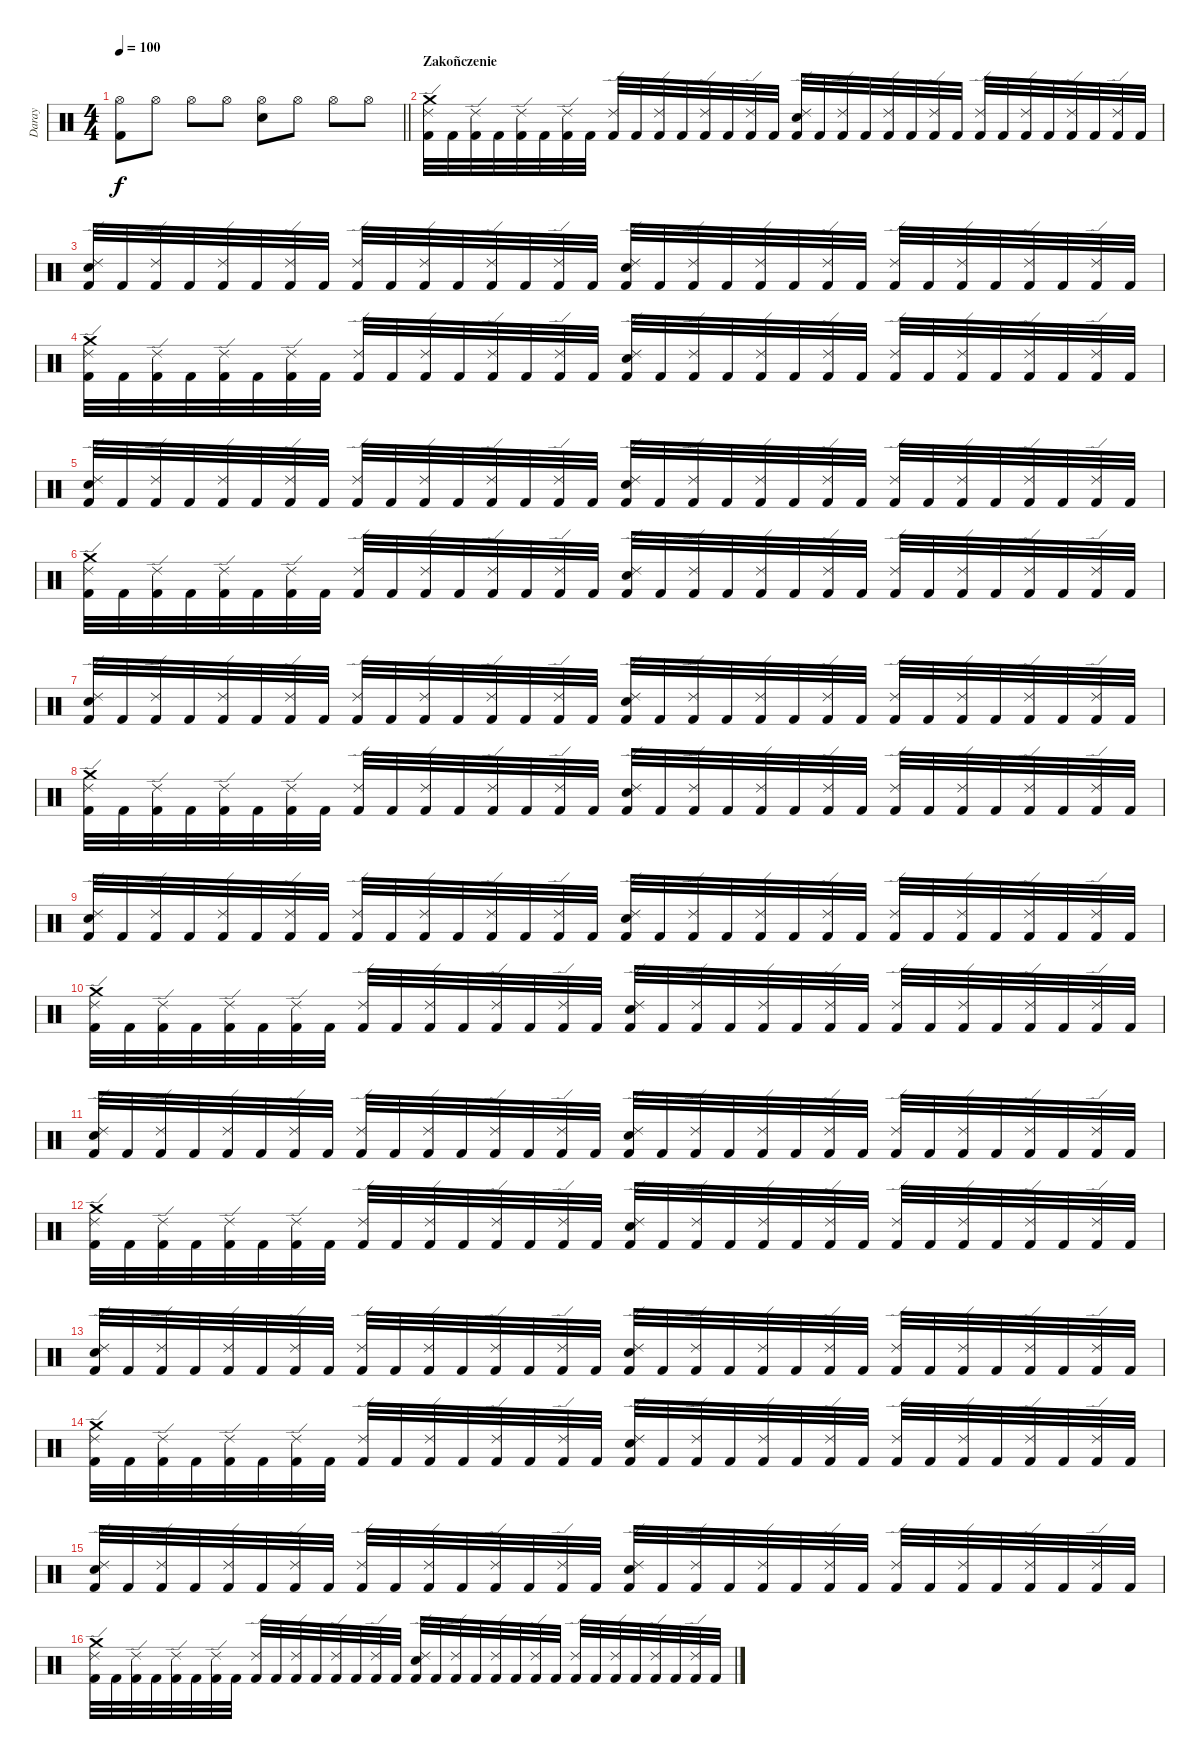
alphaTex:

\track ("Daray" "Daray") {instrument percussion}
\staff {score}
\articulation defaults
\ts (4 4)
\tempo 100
\clef neutral
\barLineRight lightlight
\ks c
("Hi-Hat (open)" "Kick (hit) 2").8{dy f} "Hi-Hat (open)".8 "Hi-Hat (open)".8 "Hi-Hat (open)".8 ("Hi-Hat (open)" "Electric Snare (hit)").8 "Hi-Hat (open)".8 "Hi-Hat (open)".8 "Hi-Hat (open)".8 |
\section ("" "Zakoñczenie")
("Ride (edge) 2" "Crash medium (hit)" "Kick (hit) 2").32 "Kick (hit) 2".32 ("Ride (edge) 2" "Kick (hit) 2").32 "Kick (hit) 2".32 ("Ride (edge) 2" "Kick (hit) 2").32 "Kick (hit) 2".32 ("Ride (edge) 2" "Kick (hit) 2").32 "Kick (hit) 2".32 ("Ride (edge) 2" "Kick (hit) 2").32 "Kick (hit) 2".32 ("Ride (edge) 2" "Kick (hit) 2").32 "Kick (hit) 2".32 ("Ride (edge) 2" "Kick (hit) 2").32 "Kick (hit) 2".32 ("Ride (edge) 2" "Kick (hit) 2").32 "Kick (hit) 2".32 ("Snare (hit) 2" "Ride (edge) 2" "Kick (hit) 2").32 "Kick (hit) 2".32 ("Ride (edge) 2" "Kick (hit) 2").32 "Kick (hit) 2".32 ("Ride (edge) 2" "Kick (hit) 2").32 "Kick (hit) 2".32 ("Ride (edge) 2" "Kick (hit) 2").32 "Kick (hit) 2".32 ("Ride (edge) 2" "Kick (hit) 2").32 "Kick (hit) 2".32 ("Ride (edge) 2" "Kick (hit) 2").32 "Kick (hit) 2".32 ("Ride (edge) 2" "Kick (hit) 2").32 "Kick (hit) 2".32 ("Ride (edge) 2" "Kick (hit) 2").32 "Kick (hit) 2".32 |
("Snare (hit) 2" "Ride (edge) 2" "Kick (hit) 2").32 "Kick (hit) 2".32 ("Ride (edge) 2" "Kick (hit) 2").32 "Kick (hit) 2".32 ("Ride (edge) 2" "Kick (hit) 2").32 "Kick (hit) 2".32 ("Ride (edge) 2" "Kick (hit) 2").32 "Kick (hit) 2".32 ("Ride (edge) 2" "Kick (hit) 2").32 "Kick (hit) 2".32 ("Ride (edge) 2" "Kick (hit) 2").32 "Kick (hit) 2".32 ("Ride (edge) 2" "Kick (hit) 2").32 "Kick (hit) 2".32 ("Ride (edge) 2" "Kick (hit) 2").32 "Kick (hit) 2".32 ("Snare (hit) 2" "Ride (edge) 2" "Kick (hit) 2").32 "Kick (hit) 2".32 ("Ride (edge) 2" "Kick (hit) 2").32 "Kick (hit) 2".32 ("Ride (edge) 2" "Kick (hit) 2").32 "Kick (hit) 2".32 ("Ride (edge) 2" "Kick (hit) 2").32 "Kick (hit) 2".32 ("Ride (edge) 2" "Kick (hit) 2").32 "Kick (hit) 2".32 ("Ride (edge) 2" "Kick (hit) 2").32 "Kick (hit) 2".32 ("Ride (edge) 2" "Kick (hit) 2").32 "Kick (hit) 2".32 ("Ride (edge) 2" "Kick (hit) 2").32 "Kick (hit) 2".32 |
("Ride (edge) 2" "Crash medium (hit)" "Kick (hit) 2").32 "Kick (hit) 2".32 ("Ride (edge) 2" "Kick (hit) 2").32 "Kick (hit) 2".32 ("Ride (edge) 2" "Kick (hit) 2").32 "Kick (hit) 2".32 ("Ride (edge) 2" "Kick (hit) 2").32 "Kick (hit) 2".32 ("Ride (edge) 2" "Kick (hit) 2").32 "Kick (hit) 2".32 ("Ride (edge) 2" "Kick (hit) 2").32 "Kick (hit) 2".32 ("Ride (edge) 2" "Kick (hit) 2").32 "Kick (hit) 2".32 ("Ride (edge) 2" "Kick (hit) 2").32 "Kick (hit) 2".32 ("Snare (hit) 2" "Ride (edge) 2" "Kick (hit) 2").32 "Kick (hit) 2".32 ("Ride (edge) 2" "Kick (hit) 2").32 "Kick (hit) 2".32 ("Ride (edge) 2" "Kick (hit) 2").32 "Kick (hit) 2".32 ("Ride (edge) 2" "Kick (hit) 2").32 "Kick (hit) 2".32 ("Ride (edge) 2" "Kick (hit) 2").32 "Kick (hit) 2".32 ("Ride (edge) 2" "Kick (hit) 2").32 "Kick (hit) 2".32 ("Ride (edge) 2" "Kick (hit) 2").32 "Kick (hit) 2".32 ("Ride (edge) 2" "Kick (hit) 2").32 "Kick (hit) 2".32 |
("Snare (hit) 2" "Ride (edge) 2" "Kick (hit) 2").32 "Kick (hit) 2".32 ("Ride (edge) 2" "Kick (hit) 2").32 "Kick (hit) 2".32 ("Ride (edge) 2" "Kick (hit) 2").32 "Kick (hit) 2".32 ("Ride (edge) 2" "Kick (hit) 2").32 "Kick (hit) 2".32 ("Ride (edge) 2" "Kick (hit) 2").32 "Kick (hit) 2".32 ("Ride (edge) 2" "Kick (hit) 2").32 "Kick (hit) 2".32 ("Ride (edge) 2" "Kick (hit) 2").32 "Kick (hit) 2".32 ("Ride (edge) 2" "Kick (hit) 2").32 "Kick (hit) 2".32 ("Snare (hit) 2" "Ride (edge) 2" "Kick (hit) 2").32 "Kick (hit) 2".32 ("Ride (edge) 2" "Kick (hit) 2").32 "Kick (hit) 2".32 ("Ride (edge) 2" "Kick (hit) 2").32 "Kick (hit) 2".32 ("Ride (edge) 2" "Kick (hit) 2").32 "Kick (hit) 2".32 ("Ride (edge) 2" "Kick (hit) 2").32 "Kick (hit) 2".32 ("Ride (edge) 2" "Kick (hit) 2").32 "Kick (hit) 2".32 ("Ride (edge) 2" "Kick (hit) 2").32 "Kick (hit) 2".32 ("Ride (edge) 2" "Kick (hit) 2").32 "Kick (hit) 2".32 |
("Ride (edge) 2" "Crash medium (hit)" "Kick (hit) 2").32 "Kick (hit) 2".32 ("Ride (edge) 2" "Kick (hit) 2").32 "Kick (hit) 2".32 ("Ride (edge) 2" "Kick (hit) 2").32 "Kick (hit) 2".32 ("Ride (edge) 2" "Kick (hit) 2").32 "Kick (hit) 2".32 ("Ride (edge) 2" "Kick (hit) 2").32 "Kick (hit) 2".32 ("Ride (edge) 2" "Kick (hit) 2").32 "Kick (hit) 2".32 ("Ride (edge) 2" "Kick (hit) 2").32 "Kick (hit) 2".32 ("Ride (edge) 2" "Kick (hit) 2").32 "Kick (hit) 2".32 ("Snare (hit) 2" "Ride (edge) 2" "Kick (hit) 2").32 "Kick (hit) 2".32 ("Ride (edge) 2" "Kick (hit) 2").32 "Kick (hit) 2".32 ("Ride (edge) 2" "Kick (hit) 2").32 "Kick (hit) 2".32 ("Ride (edge) 2" "Kick (hit) 2").32 "Kick (hit) 2".32 ("Ride (edge) 2" "Kick (hit) 2").32 "Kick (hit) 2".32 ("Ride (edge) 2" "Kick (hit) 2").32 "Kick (hit) 2".32 ("Ride (edge) 2" "Kick (hit) 2").32 "Kick (hit) 2".32 ("Ride (edge) 2" "Kick (hit) 2").32 "Kick (hit) 2".32 |
("Snare (hit) 2" "Ride (edge) 2" "Kick (hit) 2").32 "Kick (hit) 2".32 ("Ride (edge) 2" "Kick (hit) 2").32 "Kick (hit) 2".32 ("Ride (edge) 2" "Kick (hit) 2").32 "Kick (hit) 2".32 ("Ride (edge) 2" "Kick (hit) 2").32 "Kick (hit) 2".32 ("Ride (edge) 2" "Kick (hit) 2").32 "Kick (hit) 2".32 ("Ride (edge) 2" "Kick (hit) 2").32 "Kick (hit) 2".32 ("Ride (edge) 2" "Kick (hit) 2").32 "Kick (hit) 2".32 ("Ride (edge) 2" "Kick (hit) 2").32 "Kick (hit) 2".32 ("Snare (hit) 2" "Ride (edge) 2" "Kick (hit) 2").32 "Kick (hit) 2".32 ("Ride (edge) 2" "Kick (hit) 2").32 "Kick (hit) 2".32 ("Ride (edge) 2" "Kick (hit) 2").32 "Kick (hit) 2".32 ("Ride (edge) 2" "Kick (hit) 2").32 "Kick (hit) 2".32 ("Ride (edge) 2" "Kick (hit) 2").32 "Kick (hit) 2".32 ("Ride (edge) 2" "Kick (hit) 2").32 "Kick (hit) 2".32 ("Ride (edge) 2" "Kick (hit) 2").32 "Kick (hit) 2".32 ("Ride (edge) 2" "Kick (hit) 2").32 "Kick (hit) 2".32 |
("Ride (edge) 2" "Crash medium (hit)" "Kick (hit) 2").32 "Kick (hit) 2".32 ("Ride (edge) 2" "Kick (hit) 2").32 "Kick (hit) 2".32 ("Ride (edge) 2" "Kick (hit) 2").32 "Kick (hit) 2".32 ("Ride (edge) 2" "Kick (hit) 2").32 "Kick (hit) 2".32 ("Ride (edge) 2" "Kick (hit) 2").32 "Kick (hit) 2".32 ("Ride (edge) 2" "Kick (hit) 2").32 "Kick (hit) 2".32 ("Ride (edge) 2" "Kick (hit) 2").32 "Kick (hit) 2".32 ("Ride (edge) 2" "Kick (hit) 2").32 "Kick (hit) 2".32 ("Snare (hit) 2" "Ride (edge) 2" "Kick (hit) 2").32 "Kick (hit) 2".32 ("Ride (edge) 2" "Kick (hit) 2").32 "Kick (hit) 2".32 ("Ride (edge) 2" "Kick (hit) 2").32 "Kick (hit) 2".32 ("Ride (edge) 2" "Kick (hit) 2").32 "Kick (hit) 2".32 ("Ride (edge) 2" "Kick (hit) 2").32 "Kick (hit) 2".32 ("Ride (edge) 2" "Kick (hit) 2").32 "Kick (hit) 2".32 ("Ride (edge) 2" "Kick (hit) 2").32 "Kick (hit) 2".32 ("Ride (edge) 2" "Kick (hit) 2").32 "Kick (hit) 2".32 |
("Snare (hit) 2" "Ride (edge) 2" "Kick (hit) 2").32 "Kick (hit) 2".32 ("Ride (edge) 2" "Kick (hit) 2").32 "Kick (hit) 2".32 ("Ride (edge) 2" "Kick (hit) 2").32 "Kick (hit) 2".32 ("Ride (edge) 2" "Kick (hit) 2").32 "Kick (hit) 2".32 ("Ride (edge) 2" "Kick (hit) 2").32 "Kick (hit) 2".32 ("Ride (edge) 2" "Kick (hit) 2").32 "Kick (hit) 2".32 ("Ride (edge) 2" "Kick (hit) 2").32 "Kick (hit) 2".32 ("Ride (edge) 2" "Kick (hit) 2").32 "Kick (hit) 2".32 ("Snare (hit) 2" "Ride (edge) 2" "Kick (hit) 2").32 "Kick (hit) 2".32 ("Ride (edge) 2" "Kick (hit) 2").32 "Kick (hit) 2".32 ("Ride (edge) 2" "Kick (hit) 2").32 "Kick (hit) 2".32 ("Ride (edge) 2" "Kick (hit) 2").32 "Kick (hit) 2".32 ("Ride (edge) 2" "Kick (hit) 2").32 "Kick (hit) 2".32 ("Ride (edge) 2" "Kick (hit) 2").32 "Kick (hit) 2".32 ("Ride (edge) 2" "Kick (hit) 2").32 "Kick (hit) 2".32 ("Ride (edge) 2" "Kick (hit) 2").32 "Kick (hit) 2".32 |
("Ride (edge) 2" "Crash medium (hit)" "Kick (hit) 2").32 "Kick (hit) 2".32 ("Ride (edge) 2" "Kick (hit) 2").32 "Kick (hit) 2".32 ("Ride (edge) 2" "Kick (hit) 2").32 "Kick (hit) 2".32 ("Ride (edge) 2" "Kick (hit) 2").32 "Kick (hit) 2".32 ("Ride (edge) 2" "Kick (hit) 2").32 "Kick (hit) 2".32 ("Ride (edge) 2" "Kick (hit) 2").32 "Kick (hit) 2".32 ("Ride (edge) 2" "Kick (hit) 2").32 "Kick (hit) 2".32 ("Ride (edge) 2" "Kick (hit) 2").32 "Kick (hit) 2".32 ("Snare (hit) 2" "Ride (edge) 2" "Kick (hit) 2").32 "Kick (hit) 2".32 ("Ride (edge) 2" "Kick (hit) 2").32 "Kick (hit) 2".32 ("Ride (edge) 2" "Kick (hit) 2").32 "Kick (hit) 2".32 ("Ride (edge) 2" "Kick (hit) 2").32 "Kick (hit) 2".32 ("Ride (edge) 2" "Kick (hit) 2").32 "Kick (hit) 2".32 ("Ride (edge) 2" "Kick (hit) 2").32 "Kick (hit) 2".32 ("Ride (edge) 2" "Kick (hit) 2").32 "Kick (hit) 2".32 ("Ride (edge) 2" "Kick (hit) 2").32 "Kick (hit) 2".32 |
("Snare (hit) 2" "Ride (edge) 2" "Kick (hit) 2").32 "Kick (hit) 2".32 ("Ride (edge) 2" "Kick (hit) 2").32 "Kick (hit) 2".32 ("Ride (edge) 2" "Kick (hit) 2").32 "Kick (hit) 2".32 ("Ride (edge) 2" "Kick (hit) 2").32 "Kick (hit) 2".32 ("Ride (edge) 2" "Kick (hit) 2").32 "Kick (hit) 2".32 ("Ride (edge) 2" "Kick (hit) 2").32 "Kick (hit) 2".32 ("Ride (edge) 2" "Kick (hit) 2").32 "Kick (hit) 2".32 ("Ride (edge) 2" "Kick (hit) 2").32 "Kick (hit) 2".32 ("Snare (hit) 2" "Ride (edge) 2" "Kick (hit) 2").32 "Kick (hit) 2".32 ("Ride (edge) 2" "Kick (hit) 2").32 "Kick (hit) 2".32 ("Ride (edge) 2" "Kick (hit) 2").32 "Kick (hit) 2".32 ("Ride (edge) 2" "Kick (hit) 2").32 "Kick (hit) 2".32 ("Ride (edge) 2" "Kick (hit) 2").32 "Kick (hit) 2".32 ("Ride (edge) 2" "Kick (hit) 2").32 "Kick (hit) 2".32 ("Ride (edge) 2" "Kick (hit) 2").32 "Kick (hit) 2".32 ("Ride (edge) 2" "Kick (hit) 2").32 "Kick (hit) 2".32 |
("Ride (edge) 2" "Crash medium (hit)" "Kick (hit) 2").32 "Kick (hit) 2".32 ("Ride (edge) 2" "Kick (hit) 2").32 "Kick (hit) 2".32 ("Ride (edge) 2" "Kick (hit) 2").32 "Kick (hit) 2".32 ("Ride (edge) 2" "Kick (hit) 2").32 "Kick (hit) 2".32 ("Ride (edge) 2" "Kick (hit) 2").32 "Kick (hit) 2".32 ("Ride (edge) 2" "Kick (hit) 2").32 "Kick (hit) 2".32 ("Ride (edge) 2" "Kick (hit) 2").32 "Kick (hit) 2".32 ("Ride (edge) 2" "Kick (hit) 2").32 "Kick (hit) 2".32 ("Snare (hit) 2" "Ride (edge) 2" "Kick (hit) 2").32 "Kick (hit) 2".32 ("Ride (edge) 2" "Kick (hit) 2").32 "Kick (hit) 2".32 ("Ride (edge) 2" "Kick (hit) 2").32 "Kick (hit) 2".32 ("Ride (edge) 2" "Kick (hit) 2").32 "Kick (hit) 2".32 ("Ride (edge) 2" "Kick (hit) 2").32 "Kick (hit) 2".32 ("Ride (edge) 2" "Kick (hit) 2").32 "Kick (hit) 2".32 ("Ride (edge) 2" "Kick (hit) 2").32 "Kick (hit) 2".32 ("Ride (edge) 2" "Kick (hit) 2").32 "Kick (hit) 2".32 |
("Snare (hit) 2" "Ride (edge) 2" "Kick (hit) 2").32 "Kick (hit) 2".32 ("Ride (edge) 2" "Kick (hit) 2").32 "Kick (hit) 2".32 ("Ride (edge) 2" "Kick (hit) 2").32 "Kick (hit) 2".32 ("Ride (edge) 2" "Kick (hit) 2").32 "Kick (hit) 2".32 ("Ride (edge) 2" "Kick (hit) 2").32 "Kick (hit) 2".32 ("Ride (edge) 2" "Kick (hit) 2").32 "Kick (hit) 2".32 ("Ride (edge) 2" "Kick (hit) 2").32 "Kick (hit) 2".32 ("Ride (edge) 2" "Kick (hit) 2").32 "Kick (hit) 2".32 ("Snare (hit) 2" "Ride (edge) 2" "Kick (hit) 2").32 "Kick (hit) 2".32 ("Ride (edge) 2" "Kick (hit) 2").32 "Kick (hit) 2".32 ("Ride (edge) 2" "Kick (hit) 2").32 "Kick (hit) 2".32 ("Ride (edge) 2" "Kick (hit) 2").32 "Kick (hit) 2".32 ("Ride (edge) 2" "Kick (hit) 2").32 "Kick (hit) 2".32 ("Ride (edge) 2" "Kick (hit) 2").32 "Kick (hit) 2".32 ("Ride (edge) 2" "Kick (hit) 2").32 "Kick (hit) 2".32 ("Ride (edge) 2" "Kick (hit) 2").32 "Kick (hit) 2".32 |
("Ride (edge) 2" "Crash medium (hit)" "Kick (hit) 2").32 "Kick (hit) 2".32 ("Ride (edge) 2" "Kick (hit) 2").32 "Kick (hit) 2".32 ("Ride (edge) 2" "Kick (hit) 2").32 "Kick (hit) 2".32 ("Ride (edge) 2" "Kick (hit) 2").32 "Kick (hit) 2".32 ("Ride (edge) 2" "Kick (hit) 2").32 "Kick (hit) 2".32 ("Ride (edge) 2" "Kick (hit) 2").32 "Kick (hit) 2".32 ("Ride (edge) 2" "Kick (hit) 2").32 "Kick (hit) 2".32 ("Ride (edge) 2" "Kick (hit) 2").32 "Kick (hit) 2".32 ("Snare (hit) 2" "Ride (edge) 2" "Kick (hit) 2").32 "Kick (hit) 2".32 ("Ride (edge) 2" "Kick (hit) 2").32 "Kick (hit) 2".32 ("Ride (edge) 2" "Kick (hit) 2").32 "Kick (hit) 2".32 ("Ride (edge) 2" "Kick (hit) 2").32 "Kick (hit) 2".32 ("Ride (edge) 2" "Kick (hit) 2").32 "Kick (hit) 2".32 ("Ride (edge) 2" "Kick (hit) 2").32 "Kick (hit) 2".32 ("Ride (edge) 2" "Kick (hit) 2").32 "Kick (hit) 2".32 ("Ride (edge) 2" "Kick (hit) 2").32 "Kick (hit) 2".32 |
("Snare (hit) 2" "Ride (edge) 2" "Kick (hit) 2").32 "Kick (hit) 2".32 ("Ride (edge) 2" "Kick (hit) 2").32 "Kick (hit) 2".32 ("Ride (edge) 2" "Kick (hit) 2").32 "Kick (hit) 2".32 ("Ride (edge) 2" "Kick (hit) 2").32 "Kick (hit) 2".32 ("Ride (edge) 2" "Kick (hit) 2").32 "Kick (hit) 2".32 ("Ride (edge) 2" "Kick (hit) 2").32 "Kick (hit) 2".32 ("Ride (edge) 2" "Kick (hit) 2").32 "Kick (hit) 2".32 ("Ride (edge) 2" "Kick (hit) 2").32 "Kick (hit) 2".32 ("Snare (hit) 2" "Ride (edge) 2" "Kick (hit) 2").32 "Kick (hit) 2".32 ("Ride (edge) 2" "Kick (hit) 2").32 "Kick (hit) 2".32 ("Ride (edge) 2" "Kick (hit) 2").32 "Kick (hit) 2".32 ("Ride (edge) 2" "Kick (hit) 2").32 "Kick (hit) 2".32 ("Ride (edge) 2" "Kick (hit) 2").32 "Kick (hit) 2".32 ("Ride (edge) 2" "Kick (hit) 2").32 "Kick (hit) 2".32 ("Ride (edge) 2" "Kick (hit) 2").32 "Kick (hit) 2".32 ("Ride (edge) 2" "Kick (hit) 2").32 "Kick (hit) 2".32 |
("Ride (edge) 2" "Crash medium (hit)" "Kick (hit) 2").32 "Kick (hit) 2".32 ("Ride (edge) 2" "Kick (hit) 2").32 "Kick (hit) 2".32 ("Ride (edge) 2" "Kick (hit) 2").32 "Kick (hit) 2".32 ("Ride (edge) 2" "Kick (hit) 2").32 "Kick (hit) 2".32 ("Ride (edge) 2" "Kick (hit) 2").32 "Kick (hit) 2".32 ("Ride (edge) 2" "Kick (hit) 2").32 "Kick (hit) 2".32 ("Ride (edge) 2" "Kick (hit) 2").32 "Kick (hit) 2".32 ("Ride (edge) 2" "Kick (hit) 2").32 "Kick (hit) 2".32 ("Snare (hit) 2" "Ride (edge) 2" "Kick (hit) 2").32 "Kick (hit) 2".32 ("Ride (edge) 2" "Kick (hit) 2").32 "Kick (hit) 2".32 ("Ride (edge) 2" "Kick (hit) 2").32 "Kick (hit) 2".32 ("Ride (edge) 2" "Kick (hit) 2").32 "Kick (hit) 2".32 ("Ride (edge) 2" "Kick (hit) 2").32 "Kick (hit) 2".32 ("Ride (edge) 2" "Kick (hit) 2").32 "Kick (hit) 2".32 ("Ride (edge) 2" "Kick (hit) 2").32 "Kick (hit) 2".32 ("Ride (edge) 2" "Kick (hit) 2").32 "Kick (hit) 2".32
